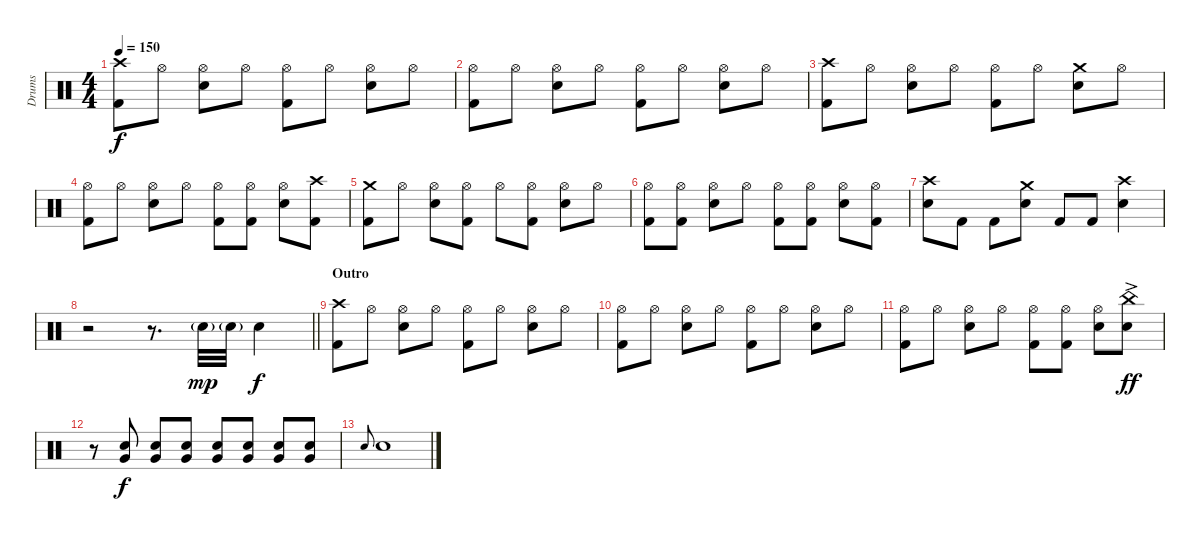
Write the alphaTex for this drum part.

\track ("Drums" "Drums") {instrument percussion}
\staff {score}
\articulation defaults
\ts (4 4)
\tempo 150
\clef neutral
\ks c
("Crash high (hit)" "Kick (hit) 2").8{dy f} "Hi-Hat (open)".8 ("Hi-Hat (open)" "Electric Snare (hit)").8 "Hi-Hat (open)".8 ("Hi-Hat (open)" "Kick (hit) 2").8 "Hi-Hat (open)".8 ("Hi-Hat (open)" "Electric Snare (hit)").8 "Hi-Hat (open)".8 |
("Hi-Hat (open)" "Kick (hit) 2").8 "Hi-Hat (open)".8 ("Hi-Hat (open)" "Electric Snare (hit)").8 "Hi-Hat (open)".8 ("Hi-Hat (open)" "Kick (hit) 2").8 "Hi-Hat (open)".8 ("Hi-Hat (open)" "Electric Snare (hit)").8 "Hi-Hat (open)".8 |
("Crash high (hit)" "Kick (hit) 2").8 "Hi-Hat (open)".8 ("Hi-Hat (open)" "Electric Snare (hit)").8 "Hi-Hat (open)".8 ("Hi-Hat (open)" "Kick (hit) 2").8 "Hi-Hat (open)".8 ("Crash medium (hit)" "Electric Snare (hit)").8 "Hi-Hat (open)".8 |
("Hi-Hat (open)" "Kick (hit) 2").8 "Hi-Hat (open)".8 ("Hi-Hat (open)" "Electric Snare (hit)").8 "Hi-Hat (open)".8 ("Hi-Hat (open)" "Kick (hit) 2").8 ("Hi-Hat (open)" "Kick (hit) 2").8 ("Hi-Hat (open)" "Electric Snare (hit)").8 ("Crash high (hit)" "Kick (hit) 2").8 |
("Crash medium (hit)" "Kick (hit) 2").8 "Hi-Hat (open)".8 ("Hi-Hat (open)" "Electric Snare (hit)").8 ("Hi-Hat (open)" "Kick (hit) 2").8 "Hi-Hat (open)".8 ("Hi-Hat (open)" "Kick (hit) 2").8 ("Hi-Hat (open)" "Electric Snare (hit)").8 "Hi-Hat (open)".8 |
("Hi-Hat (open)" "Kick (hit) 2").8 ("Hi-Hat (open)" "Kick (hit) 2").8 ("Hi-Hat (open)" "Electric Snare (hit)").8 "Hi-Hat (open)".8 ("Hi-Hat (open)" "Kick (hit) 2").8 ("Hi-Hat (open)" "Kick (hit) 2").8 ("Hi-Hat (open)" "Electric Snare (hit)").8 ("Hi-Hat (open)" "Kick (hit) 2").8 |
("Crash high (hit)" "Electric Snare (hit)").8 "Kick (hit) 2".8 "Kick (hit) 2".8 ("Crash medium (hit)" "Electric Snare (hit)").8 "Kick (hit) 2".8 "Kick (hit) 2".8 ("Crash high (hit)" "Electric Snare (hit)").4 |
\barLineRight lightlight
r.2 r.8{d} "Electric Snare (hit)"{g}.32{dy mp} "Electric Snare (hit)"{g}.32 "Electric Snare (hit)".4{dy f} |
\section ("" "Outro")
("Crash high (hit)" "Kick (hit) 2").8 "Hi-Hat (open)".8 ("Hi-Hat (open)" "Electric Snare (hit)").8 "Hi-Hat (open)".8 ("Hi-Hat (open)" "Kick (hit) 2").8 "Hi-Hat (open)".8 ("Hi-Hat (open)" "Electric Snare (hit)").8 "Hi-Hat (open)".8 |
("Hi-Hat (open)" "Kick (hit) 2").8 "Hi-Hat (open)".8 ("Hi-Hat (open)" "Electric Snare (hit)").8 "Hi-Hat (open)".8 ("Hi-Hat (open)" "Kick (hit) 2").8 "Hi-Hat (open)".8 ("Hi-Hat (open)" "Electric Snare (hit)").8 "Hi-Hat (open)".8 |
("Hi-Hat (open)" "Kick (hit) 2").8 "Hi-Hat (open)".8 ("Hi-Hat (open)" "Electric Snare (hit)").8 "Hi-Hat (open)".8 ("Hi-Hat (open)" "Kick (hit) 2").8 ("Hi-Hat (open)" "Kick (hit) 2").8 ("Hi-Hat (open)" "Electric Snare (hit)").8 ("China (hit)"{ac} "Electric Snare (hit)"{ac}).8{dy ff} |
r.8 ("Very Low Tom (hit)" "Electric Snare (hit)").8{dy f} ("Very Low Tom (hit)" "Electric Snare (hit)").8 ("Very Low Tom (hit)" "Electric Snare (hit)").8 ("Very Low Tom (hit)" "Electric Snare (hit)").8 ("Very Low Tom (hit)" "Electric Snare (hit)").8 ("Very Low Tom (hit)" "Electric Snare (hit)").8 ("Very Low Tom (hit)" "Electric Snare (hit)").8 |
"Electric Snare (hit)".8{gr onbeat} "Electric Snare (hit)".1
